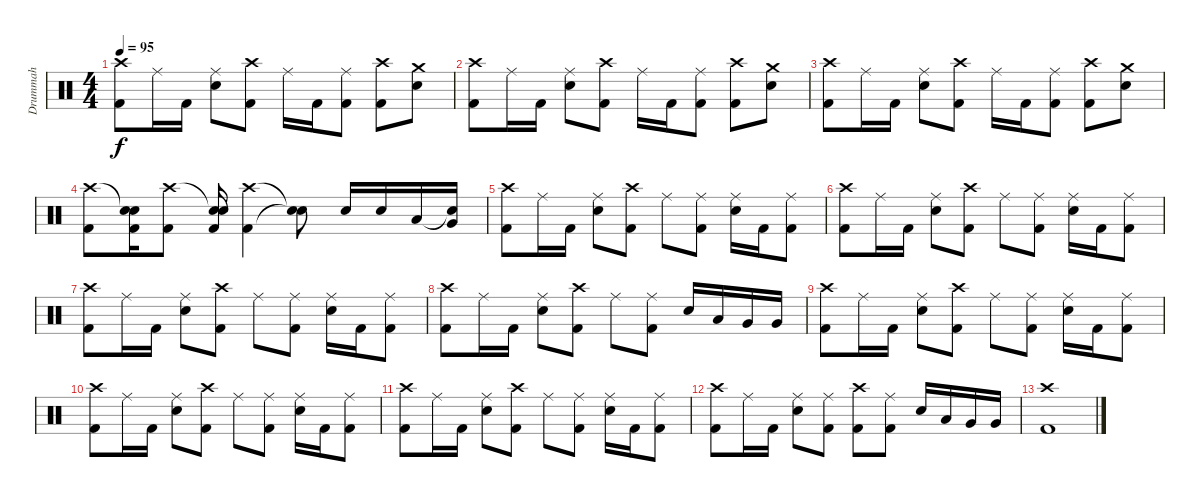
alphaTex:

\track ("Drummah" "Drummah") {instrument percussion}
\staff {score}
\articulation defaults
\ts (4 4)
\tempo 95
\clef neutral
\ks c
("Crash high (hit)" "Kick (hit) 2").8{dy f} "Ride (middle)".16 "Kick (hit) 2".16 ("Ride (middle)" "Snare (hit) 2").8 ("Crash high (hit)" "Kick (hit) 2").8 "Ride (middle)".16 "Kick (hit) 2".16 ("Ride (middle)" "Kick (hit) 2").8 ("Crash high (hit)" "Kick (hit) 2").8 ("Crash medium (hit)" "Snare (hit) 2").8 |
("Crash high (hit)" "Kick (hit) 2").8 "Ride (middle)".16 "Kick (hit) 2".16 ("Ride (middle)" "Snare (hit) 2").8 ("Crash high (hit)" "Kick (hit) 2").8 "Ride (middle)".16 "Kick (hit) 2".16 ("Ride (middle)" "Kick (hit) 2").8 ("Crash high (hit)" "Kick (hit) 2").8 ("Crash medium (hit)" "Snare (hit) 2").8 |
("Crash high (hit)" "Kick (hit) 2").8 "Ride (middle)".16 "Kick (hit) 2".16 ("Ride (middle)" "Snare (hit) 2").8 ("Crash high (hit)" "Kick (hit) 2").8 "Ride (middle)".16 "Kick (hit) 2".16 ("Ride (middle)" "Kick (hit) 2").8 ("Crash high (hit)" "Kick (hit) 2").8 ("Crash medium (hit)" "Snare (hit) 2").8 |
("Crash high (hit)" "Kick (hit) 2").8 ("Snare (hit)"{t} "Snare (hit) 2" "Kick (hit) 2").16 ("Crash high (hit)" "Kick (hit) 2").8 ("Snare (hit)"{t} "Snare (hit) 2" "Kick (hit) 2").16 ("Crash high (hit)" "Kick (hit) 2").4 ("Snare (hit)"{t} "Snare (hit)"{t}).8 "Snare (hit) 2".16 "Snare (hit) 2".16 "Low Tom (hit)".16 ("Snare (hit)"{t} "Very Low Tom (hit)").16 |
("Crash high (hit)" "Kick (hit) 2").8 "Ride (middle)".16 "Kick (hit) 2".16 ("Ride (middle)" "Snare (hit) 2").8 ("Crash high (hit)" "Kick (hit) 2").8 "Ride (middle)".8 ("Ride (middle)" "Kick (hit) 2").8 ("Ride (middle)" "Snare (hit) 2").16 "Kick (hit) 2".16 ("Ride (middle)" "Kick (hit) 2").8 |
("Crash high (hit)" "Kick (hit) 2").8 "Ride (middle)".16 "Kick (hit) 2".16 ("Ride (middle)" "Snare (hit) 2").8 ("Crash high (hit)" "Kick (hit) 2").8 "Ride (middle)".8 ("Ride (middle)" "Kick (hit) 2").8 ("Ride (middle)" "Snare (hit) 2").16 "Kick (hit) 2".16 ("Ride (middle)" "Kick (hit) 2").8 |
("Crash high (hit)" "Kick (hit) 2").8 "Ride (middle)".16 "Kick (hit) 2".16 ("Ride (middle)" "Snare (hit) 2").8 ("Crash high (hit)" "Kick (hit) 2").8 "Ride (middle)".8 ("Ride (middle)" "Kick (hit) 2").8 ("Ride (middle)" "Snare (hit) 2").16 "Kick (hit) 2".16 ("Ride (middle)" "Kick (hit) 2").8 |
("Crash high (hit)" "Kick (hit) 2").8 "Ride (middle)".16 "Kick (hit) 2".16 ("Ride (middle)" "Snare (hit) 2").8 ("Crash high (hit)" "Kick (hit) 2").8 "Ride (middle)".8 ("Ride (middle)" "Kick (hit) 2").8 "Snare (hit) 2".16 "Low Tom (hit)".16 "Very Low Tom (hit)".16 "Very Low Tom (hit)".16 |
("Crash high (hit)" "Kick (hit) 2").8 "Ride (middle)".16 "Kick (hit) 2".16 ("Ride (middle)" "Snare (hit) 2").8 ("Crash high (hit)" "Kick (hit) 2").8 "Ride (middle)".8 ("Ride (middle)" "Kick (hit) 2").8 ("Ride (middle)" "Snare (hit) 2").16 "Kick (hit) 2".16 ("Ride (middle)" "Kick (hit) 2").8 |
("Crash high (hit)" "Kick (hit) 2").8 "Ride (middle)".16 "Kick (hit) 2".16 ("Ride (middle)" "Snare (hit) 2").8 ("Crash high (hit)" "Kick (hit) 2").8 "Ride (middle)".8 ("Ride (middle)" "Kick (hit) 2").8 ("Ride (middle)" "Snare (hit) 2").16 "Kick (hit) 2".16 ("Ride (middle)" "Kick (hit) 2").8 |
("Crash high (hit)" "Kick (hit) 2").8 "Ride (middle)".16 "Kick (hit) 2".16 ("Ride (middle)" "Snare (hit) 2").8 ("Crash high (hit)" "Kick (hit) 2").8 "Ride (middle)".8 ("Ride (middle)" "Kick (hit) 2").8 ("Ride (middle)" "Snare (hit) 2").16 "Kick (hit) 2".16 ("Ride (middle)" "Kick (hit) 2").8 |
("Crash high (hit)" "Kick (hit) 2").8 "Ride (middle)".16 "Kick (hit) 2".16 ("Ride (middle)" "Snare (hit) 2").8 ("Ride (middle)" "Kick (hit) 2").8 ("Crash high (hit)" "Kick (hit) 2").8 ("Ride (middle)" "Kick (hit) 2").8 "Snare (hit) 2".16 "Low Tom (hit)".16 "Very Low Tom (hit)".16 "Very Low Tom (hit)".16 |
("Crash high (hit)" "Kick (hit) 2").1
